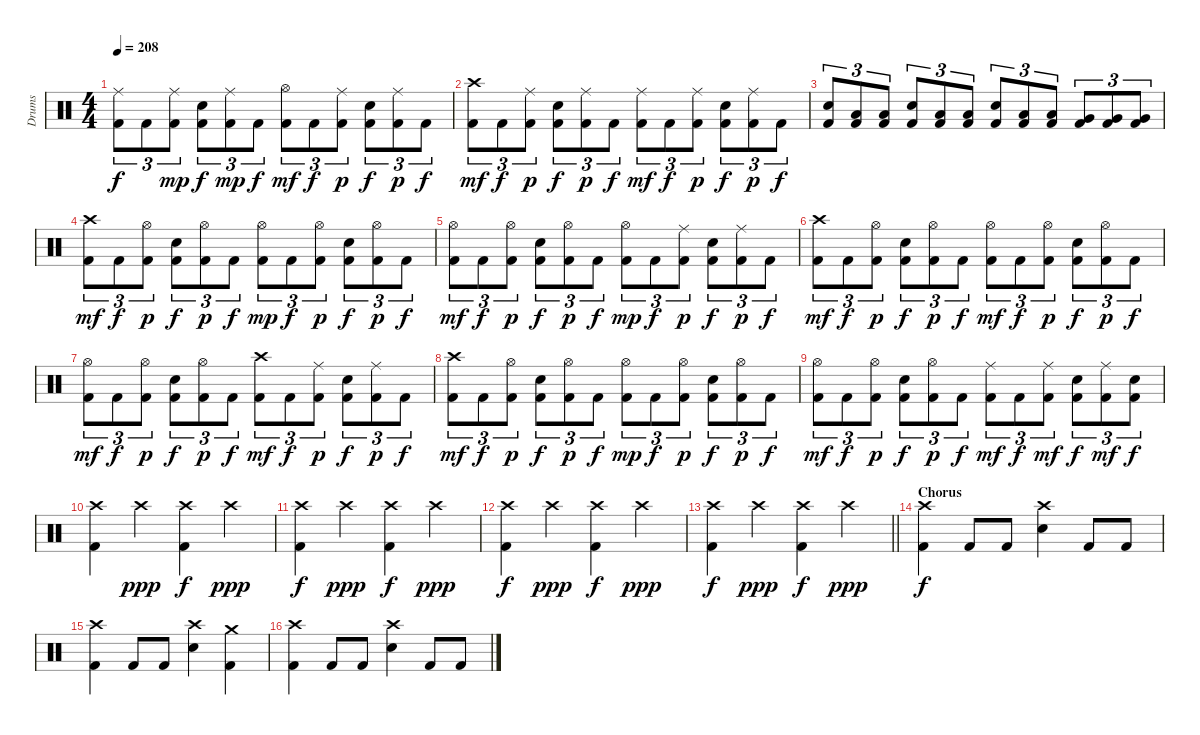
\track ("Drums" "Drums") {instrument percussion}
\staff {score}
\articulation defaults
\ts (4 4)
\tempo 208
\clef neutral
\ks c
("Ride (middle)" "Kick (hit) 2").8{tu (3 2) dy f} "Kick (hit) 2".8{tu (3 2)} ("Ride (middle)" "Kick (hit) 2").8{tu (3 2) dy mp} ("Electric Snare (hit)" "Kick (hit) 2").8{tu (3 2) dy f} ("Ride (middle)" "Kick (hit) 2").8{tu (3 2) dy mp} "Kick (hit) 2".8{tu (3 2) dy f} ("Hi-Hat (open)" "Kick (hit) 2").8{tu (3 2) dy mf} "Kick (hit) 2".8{tu (3 2) dy f} ("Ride (middle)" "Kick (hit) 2").8{tu (3 2) dy p} ("Electric Snare (hit)" "Kick (hit) 2").8{tu (3 2) dy f} ("Ride (middle)" "Kick (hit) 2").8{tu (3 2) dy p} "Kick (hit) 2".8{tu (3 2) dy f} |
("Crash high (hit)" "Kick (hit) 2").8{tu (3 2) dy mf} "Kick (hit) 2".8{tu (3 2) dy f} ("Ride (middle)" "Kick (hit) 2").8{tu (3 2) dy p} ("Electric Snare (hit)" "Kick (hit) 2").8{tu (3 2) dy f} ("Ride (middle)" "Kick (hit) 2").8{tu (3 2) dy p} "Kick (hit) 2".8{tu (3 2) dy f} ("Ride (middle)" "Kick (hit) 2").8{tu (3 2) dy mf} "Kick (hit) 2".8{tu (3 2) dy f} ("Ride (middle)" "Kick (hit) 2").8{tu (3 2) dy p} ("Electric Snare (hit)" "Kick (hit) 2").8{tu (3 2) dy f} ("Ride (middle)" "Kick (hit) 2").8{tu (3 2) dy p} "Kick (hit) 2".8{tu (3 2) dy f} |
("Electric Snare (hit)" "Kick (hit) 2").8{tu (3 2)} ("Low Tom (hit)" "Kick (hit) 2").8{tu (3 2)} ("Low Tom (hit)" "Kick (hit) 2").8{tu (3 2)} ("Electric Snare (hit)" "Kick (hit) 2").8{tu (3 2)} ("Low Tom (hit)" "Kick (hit) 2").8{tu (3 2)} ("Low Tom (hit)" "Kick (hit) 2").8{tu (3 2)} ("Electric Snare (hit)" "Kick (hit) 2").8{tu (3 2)} ("Low Tom (hit)" "Kick (hit) 2").8{tu (3 2)} ("Low Tom (hit)" "Kick (hit) 2").8{tu (3 2)} ("Very Low Tom (hit)" "Kick (hit) 2").8{tu (3 2)} ("Very Low Tom (hit)" "Kick (hit) 2").8{tu (3 2)} ("Very Low Tom (hit)" "Kick (hit) 2").8{tu (3 2)} |
("Crash high (hit)" "Kick (hit) 2").8{tu (3 2) dy mf} "Kick (hit) 2".8{tu (3 2) dy f} ("Hi-Hat (open)" "Kick (hit) 2").8{tu (3 2) dy p} ("Electric Snare (hit)" "Kick (hit) 2").8{tu (3 2) dy f} ("Hi-Hat (open)" "Kick (hit) 2").8{tu (3 2) dy p} "Kick (hit) 2".8{tu (3 2) dy f} ("Hi-Hat (open)" "Kick (hit) 2").8{tu (3 2) dy mp} "Kick (hit) 2".8{tu (3 2) dy f} ("Hi-Hat (open)" "Kick (hit) 2").8{tu (3 2) dy p} ("Electric Snare (hit)" "Kick (hit) 2").8{tu (3 2) dy f} ("Hi-Hat (open)" "Kick (hit) 2").8{tu (3 2) dy p} "Kick (hit) 2".8{tu (3 2) dy f} |
("Hi-Hat (open)" "Kick (hit) 2").8{tu (3 2) dy mf} "Kick (hit) 2".8{tu (3 2) dy f} ("Hi-Hat (open)" "Kick (hit) 2").8{tu (3 2) dy p} ("Electric Snare (hit)" "Kick (hit) 2").8{tu (3 2) dy f} ("Hi-Hat (open)" "Kick (hit) 2").8{tu (3 2) dy p} "Kick (hit) 2".8{tu (3 2) dy f} ("Hi-Hat (open)" "Kick (hit) 2").8{tu (3 2) dy mp} "Kick (hit) 2".8{tu (3 2) dy f} ("Ride (middle)" "Kick (hit) 2").8{tu (3 2) dy p} ("Electric Snare (hit)" "Kick (hit) 2").8{tu (3 2) dy f} ("Ride (middle)" "Kick (hit) 2").8{tu (3 2) dy p} "Kick (hit) 2".8{tu (3 2) dy f} |
("Crash high (hit)" "Kick (hit) 2").8{tu (3 2) dy mf} "Kick (hit) 2".8{tu (3 2) dy f} ("Hi-Hat (open)" "Kick (hit) 2").8{tu (3 2) dy p} ("Electric Snare (hit)" "Kick (hit) 2").8{tu (3 2) dy f} ("Hi-Hat (open)" "Kick (hit) 2").8{tu (3 2) dy p} "Kick (hit) 2".8{tu (3 2) dy f} ("Hi-Hat (open)" "Kick (hit) 2").8{tu (3 2) dy mf} "Kick (hit) 2".8{tu (3 2) dy f} ("Hi-Hat (open)" "Kick (hit) 2").8{tu (3 2) dy p} ("Electric Snare (hit)" "Kick (hit) 2").8{tu (3 2) dy f} ("Hi-Hat (open)" "Kick (hit) 2").8{tu (3 2) dy p} "Kick (hit) 2".8{tu (3 2) dy f} |
("Hi-Hat (open)" "Kick (hit) 2").8{tu (3 2) dy mf} "Kick (hit) 2".8{tu (3 2) dy f} ("Hi-Hat (open)" "Kick (hit) 2").8{tu (3 2) dy p} ("Electric Snare (hit)" "Kick (hit) 2").8{tu (3 2) dy f} ("Hi-Hat (open)" "Kick (hit) 2").8{tu (3 2) dy p} "Kick (hit) 2".8{tu (3 2) dy f} ("Crash high (hit)" "Kick (hit) 2").8{tu (3 2) dy mf} "Kick (hit) 2".8{tu (3 2) dy f} ("Ride (middle)" "Kick (hit) 2").8{tu (3 2) dy p} ("Electric Snare (hit)" "Kick (hit) 2").8{tu (3 2) dy f} ("Ride (middle)" "Kick (hit) 2").8{tu (3 2) dy p} "Kick (hit) 2".8{tu (3 2) dy f} |
("Crash high (hit)" "Kick (hit) 2").8{tu (3 2) dy mf} "Kick (hit) 2".8{tu (3 2) dy f} ("Hi-Hat (open)" "Kick (hit) 2").8{tu (3 2) dy p} ("Electric Snare (hit)" "Kick (hit) 2").8{tu (3 2) dy f} ("Hi-Hat (open)" "Kick (hit) 2").8{tu (3 2) dy p} "Kick (hit) 2".8{tu (3 2) dy f} ("Hi-Hat (open)" "Kick (hit) 2").8{tu (3 2) dy mp} "Kick (hit) 2".8{tu (3 2) dy f} ("Hi-Hat (open)" "Kick (hit) 2").8{tu (3 2) dy p} ("Electric Snare (hit)" "Kick (hit) 2").8{tu (3 2) dy f} ("Hi-Hat (open)" "Kick (hit) 2").8{tu (3 2) dy p} "Kick (hit) 2".8{tu (3 2) dy f} |
("Hi-Hat (open)" "Kick (hit) 2").8{tu (3 2) dy mf} "Kick (hit) 2".8{tu (3 2) dy f} ("Hi-Hat (open)" "Kick (hit) 2").8{tu (3 2) dy p} ("Electric Snare (hit)" "Kick (hit) 2").8{tu (3 2) dy f} ("Hi-Hat (open)" "Kick (hit) 2").8{tu (3 2) dy p} "Kick (hit) 2".8{tu (3 2) dy f} ("Ride (middle)" "Kick (hit) 2").8{tu (3 2) dy mf} "Kick (hit) 2".8{tu (3 2) dy f} ("Ride (middle)" "Kick (hit) 2").8{tu (3 2) dy mf} ("Electric Snare (hit)" "Kick (hit) 2").8{tu (3 2) dy f} ("Ride (middle)" "Kick (hit) 2").8{tu (3 2) dy mf} ("Electric Snare (hit)" "Kick (hit) 2").8{tu (3 2) dy f} |
("Crash high (hit)" "Kick (hit) 2").4 "Crash high (hit)".4{dy ppp} ("Crash high (hit)" "Kick (hit) 2").4{dy f} "Crash high (hit)".4{dy ppp} |
("Crash high (hit)" "Kick (hit) 2").4{dy f} "Crash high (hit)".4{dy ppp} ("Crash high (hit)" "Kick (hit) 2").4{dy f} "Crash high (hit)".4{dy ppp} |
("Crash high (hit)" "Kick (hit) 2").4{dy f} "Crash high (hit)".4{dy ppp} ("Crash high (hit)" "Kick (hit) 2").4{dy f} "Crash high (hit)".4{dy ppp} |
\barLineRight lightlight
("Crash high (hit)" "Kick (hit) 2").4{dy f} "Crash high (hit)".4{dy ppp} ("Crash high (hit)" "Kick (hit) 2").4{dy f} "Crash high (hit)".4{dy ppp} |
\section ("" "Chorus")
("Crash high (hit)" "Kick (hit) 2").4{dy f} "Kick (hit) 2".8 "Kick (hit) 2".8 ("Crash high (hit)" "Electric Snare (hit)").4 "Kick (hit) 2".8 "Kick (hit) 2".8 |
("Crash high (hit)" "Kick (hit) 2").4 "Kick (hit) 2".8 "Kick (hit) 2".8 ("Crash high (hit)" "Electric Snare (hit)").4 ("Crash medium (hit)" "Kick (hit) 2").4 |
("Crash high (hit)" "Kick (hit) 2").4 "Kick (hit) 2".8 "Kick (hit) 2".8 ("Crash high (hit)" "Electric Snare (hit)").4 "Kick (hit) 2".8 "Kick (hit) 2".8
